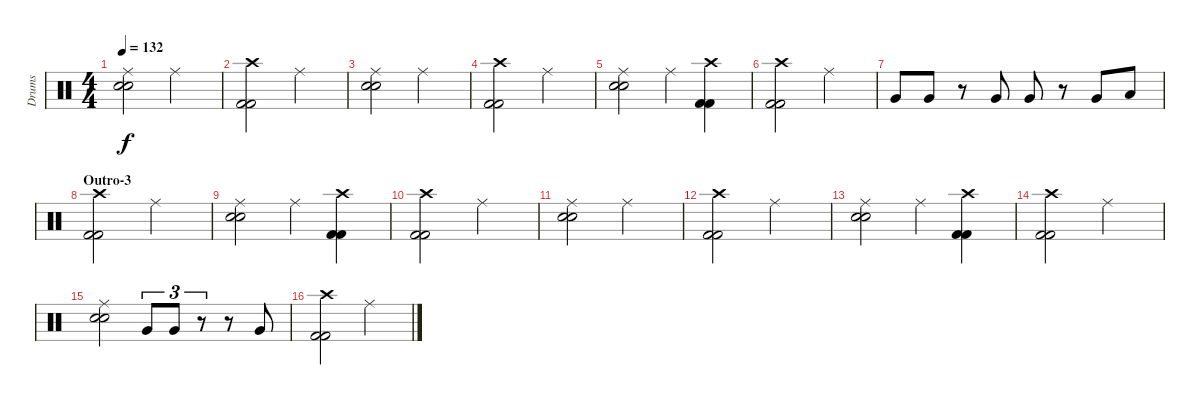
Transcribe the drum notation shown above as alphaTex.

\track ("Drums" "Drums") {instrument percussion}
\staff {score}
\articulation defaults
\ts (4 4)
\tempo 132
\clef neutral
\ks c
("Ride (middle)" "Snare (hit) 2" "Snare (hit) 2").2{dy f} "Ride (middle)".2 |
("Crash high (hit)" "Kick (hit) 2" "Kick (hit) 2").2 "Ride (middle)".2 |
("Ride (middle)" "Snare (hit) 2" "Snare (hit) 2").2 "Ride (middle)".2 |
("Crash high (hit)" "Kick (hit) 2" "Kick (hit) 2").2 "Ride (middle)".2 |
("Ride (middle)" "Snare (hit) 2" "Snare (hit) 2").2 "Ride (middle)".4 ("Crash high (hit)" "Kick (hit) 2" "Kick (hit) 2").4 |
("Crash high (hit)" "Kick (hit) 2" "Kick (hit) 2").2 "Ride (middle)".2 |
"Very Low Tom (hit)".8 "Very Low Tom (hit)".8 r.8 "Very Low Tom (hit)".8 "Very Low Tom (hit)".8 r.8 "Very Low Tom (hit)".8 "Low Floor Tom (hit)".8 |
\section ("" "Outro-3")
("Crash high (hit)" "Kick (hit) 2" "Kick (hit) 2").2{volume 9} "Ride (middle)".2 |
("Ride (middle)" "Snare (hit) 2" "Snare (hit) 2").2 "Ride (middle)".4 ("Crash high (hit)" "Kick (hit) 2" "Kick (hit) 2").4 |
("Crash high (hit)" "Kick (hit) 2" "Kick (hit) 2").2 "Ride (middle)".2 |
("Ride (middle)" "Snare (hit) 2" "Snare (hit) 2").2 "Ride (middle)".2 |
("Crash high (hit)" "Kick (hit) 2" "Kick (hit) 2").2 "Ride (middle)".2 |
("Ride (middle)" "Snare (hit) 2" "Snare (hit) 2").2 "Ride (middle)".4 ("Crash high (hit)" "Kick (hit) 2" "Kick (hit) 2").4 |
("Crash high (hit)" "Kick (hit) 2" "Kick (hit) 2").2{volume 5} "Ride (middle)".2 |
("Ride (middle)" "Snare (hit) 2" "Snare (hit) 2").2 "Very Low Tom (hit)".8{tu (3 2)} "Very Low Tom (hit)".8{tu (3 2)} r.8{tu (3 2)} r.8 "Very Low Tom (hit)".8 |
("Crash high (hit)" "Kick (hit) 2" "Kick (hit) 2").2 "Ride (middle)".2
